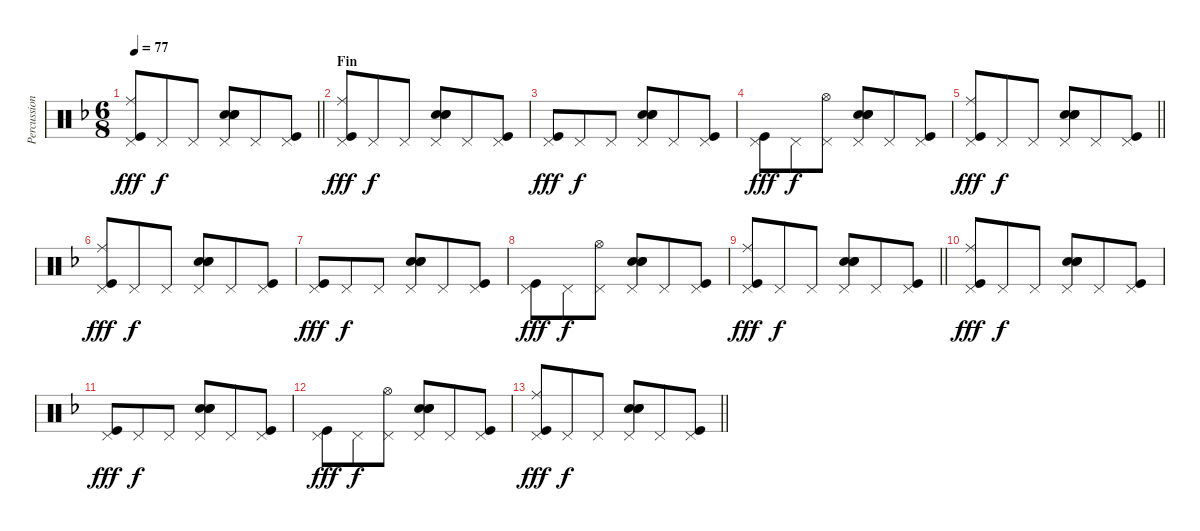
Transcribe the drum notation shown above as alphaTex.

\track ("Percussions" "Percussion") {instrument percussion}
\staff {score}
\articulation defaults
\ts (6 8)
\tempo 77
\clef neutral
\barLineRight lightlight
\ks f
("Pedal Hi-Hat (hit)" "Ride (middle)" "Kick (hit)").8{dy fff} "Pedal Hi-Hat (hit)".8{dy f} "Pedal Hi-Hat (hit)".8 ("Pedal Hi-Hat (hit)" "Metronome (bell)" "Electric Snare (hit)" "Snare (hit) 2").8 "Pedal Hi-Hat (hit)".8 ("Pedal Hi-Hat (hit)" "Kick (hit)").8 |
\section ("" "Fin")
("Pedal Hi-Hat (hit)" "Ride (middle)" "Kick (hit)").8{dy fff} "Pedal Hi-Hat (hit)".8{dy f} "Pedal Hi-Hat (hit)".8 ("Pedal Hi-Hat (hit)" "Metronome (bell)" "Electric Snare (hit)" "Snare (hit) 2").8 "Pedal Hi-Hat (hit)".8 ("Pedal Hi-Hat (hit)" "Kick (hit)").8 |
("Pedal Hi-Hat (hit)" "Kick (hit)").8{dy fff} "Pedal Hi-Hat (hit)".8{dy f} "Pedal Hi-Hat (hit)".8 ("Pedal Hi-Hat (hit)" "Metronome (bell)" "Electric Snare (hit)" "Snare (hit) 2").8 "Pedal Hi-Hat (hit)".8 ("Pedal Hi-Hat (hit)" "Kick (hit)").8 |
("Pedal Hi-Hat (hit)" "Kick (hit)").8{dy fff} "Pedal Hi-Hat (hit)".8{dy f} ("Pedal Hi-Hat (hit)" "Hi-Hat (open)").8 ("Pedal Hi-Hat (hit)" "Metronome (bell)" "Electric Snare (hit)" "Snare (hit) 2").8 "Pedal Hi-Hat (hit)".8 ("Pedal Hi-Hat (hit)" "Kick (hit)").8 |
\barLineRight lightlight
("Pedal Hi-Hat (hit)" "Ride (middle)" "Kick (hit)").8{dy fff} "Pedal Hi-Hat (hit)".8{dy f} "Pedal Hi-Hat (hit)".8 ("Pedal Hi-Hat (hit)" "Metronome (bell)" "Electric Snare (hit)" "Snare (hit) 2").8 "Pedal Hi-Hat (hit)".8 ("Pedal Hi-Hat (hit)" "Kick (hit)").8 |
("Pedal Hi-Hat (hit)" "Ride (middle)" "Kick (hit)").8{dy fff} "Pedal Hi-Hat (hit)".8{dy f} "Pedal Hi-Hat (hit)".8 ("Pedal Hi-Hat (hit)" "Metronome (bell)" "Electric Snare (hit)" "Snare (hit) 2").8 "Pedal Hi-Hat (hit)".8 ("Pedal Hi-Hat (hit)" "Kick (hit)").8 |
("Pedal Hi-Hat (hit)" "Kick (hit)").8{dy fff} "Pedal Hi-Hat (hit)".8{dy f} "Pedal Hi-Hat (hit)".8 ("Pedal Hi-Hat (hit)" "Metronome (bell)" "Electric Snare (hit)" "Snare (hit) 2").8 "Pedal Hi-Hat (hit)".8 ("Pedal Hi-Hat (hit)" "Kick (hit)").8 |
("Pedal Hi-Hat (hit)" "Kick (hit)").8{dy fff} "Pedal Hi-Hat (hit)".8{dy f} ("Pedal Hi-Hat (hit)" "Hi-Hat (open)").8 ("Pedal Hi-Hat (hit)" "Metronome (bell)" "Electric Snare (hit)" "Snare (hit) 2").8 "Pedal Hi-Hat (hit)".8 ("Pedal Hi-Hat (hit)" "Kick (hit)").8 |
\barLineRight lightlight
("Pedal Hi-Hat (hit)" "Ride (middle)" "Kick (hit)").8{dy fff} "Pedal Hi-Hat (hit)".8{dy f} "Pedal Hi-Hat (hit)".8 ("Pedal Hi-Hat (hit)" "Metronome (bell)" "Electric Snare (hit)" "Snare (hit) 2").8 "Pedal Hi-Hat (hit)".8 ("Pedal Hi-Hat (hit)" "Kick (hit)").8 |
("Pedal Hi-Hat (hit)" "Ride (middle)" "Kick (hit)").8{dy fff} "Pedal Hi-Hat (hit)".8{dy f} "Pedal Hi-Hat (hit)".8 ("Pedal Hi-Hat (hit)" "Metronome (bell)" "Electric Snare (hit)" "Snare (hit) 2").8 "Pedal Hi-Hat (hit)".8 ("Pedal Hi-Hat (hit)" "Kick (hit)").8 |
("Pedal Hi-Hat (hit)" "Kick (hit)").8{dy fff} "Pedal Hi-Hat (hit)".8{dy f} "Pedal Hi-Hat (hit)".8 ("Pedal Hi-Hat (hit)" "Metronome (bell)" "Electric Snare (hit)" "Snare (hit) 2").8 "Pedal Hi-Hat (hit)".8 ("Pedal Hi-Hat (hit)" "Kick (hit)").8 |
("Pedal Hi-Hat (hit)" "Kick (hit)").8{dy fff} "Pedal Hi-Hat (hit)".8{dy f} ("Pedal Hi-Hat (hit)" "Hi-Hat (open)").8 ("Pedal Hi-Hat (hit)" "Metronome (bell)" "Electric Snare (hit)" "Snare (hit) 2").8 "Pedal Hi-Hat (hit)".8 ("Pedal Hi-Hat (hit)" "Kick (hit)").8 |
\barLineRight lightlight
("Pedal Hi-Hat (hit)" "Ride (middle)" "Kick (hit)").8{dy fff} "Pedal Hi-Hat (hit)".8{dy f} "Pedal Hi-Hat (hit)".8 ("Pedal Hi-Hat (hit)" "Metronome (bell)" "Electric Snare (hit)" "Snare (hit) 2").8 "Pedal Hi-Hat (hit)".8 ("Pedal Hi-Hat (hit)" "Kick (hit)").8
